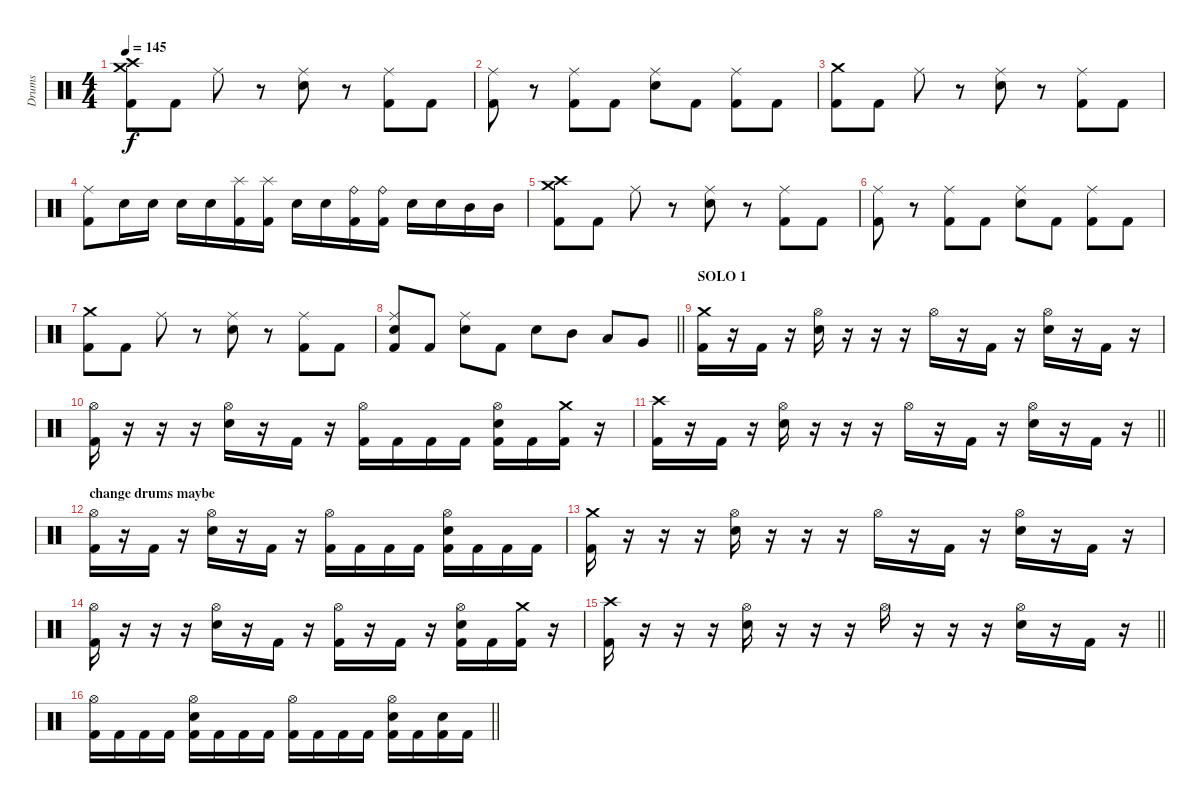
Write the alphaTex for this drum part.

\track ("Drums" "Drums") {instrument percussion}
\staff {score}
\articulation defaults
\ts (4 4)
\tempo 145
\clef neutral
\ks c
("Crash high (hit)" "Crash medium (hit)" "Kick (hit) 2").8{dy f} "Kick (hit) 2".8 "Ride (middle)".8 r.8 ("Ride (middle)" "Snare (hit) 2").8 r.8 ("Ride (middle)" "Kick (hit) 2").8 "Kick (hit) 2".8 |
("Ride (middle)" "Kick (hit) 2").8 r.8 ("Ride (middle)" "Kick (hit) 2").8 "Kick (hit) 2".8 ("Ride (middle)" "Snare (hit) 2").8 "Kick (hit) 2".8 ("Ride (middle)" "Kick (hit) 2").8 "Kick (hit) 2".8 |
("Crash medium (hit)" "Kick (hit) 2").8 "Kick (hit) 2".8 "Ride (middle)".8 r.8 ("Ride (middle)" "Snare (hit) 2").8 r.8 ("Ride (middle)" "Kick (hit) 2").8 "Kick (hit) 2".8 |
("Ride (middle)" "Kick (hit) 2").8 "Snare (hit) 2".16 "Snare (hit) 2".16 "Snare (hit) 2".16 "Snare (hit) 2".16 ("Splash (hit)" "Kick (hit) 2").16 ("Splash (hit)" "Kick (hit) 2").16 "Snare (hit) 2".16 "Snare (hit) 2".16 ("Ride (bell)" "Kick (hit) 2").16 ("Ride (bell)" "Kick (hit) 2").16 "Snare (hit) 2".16 "Snare (hit) 2".16 "Mid Tom (hit)".16 "Mid Tom (hit)".16 |
("Crash high (hit)" "Crash medium (hit)" "Kick (hit) 2").8 "Kick (hit) 2".8 "Ride (middle)".8 r.8 ("Ride (middle)" "Snare (hit) 2").8 r.8 ("Ride (middle)" "Kick (hit) 2").8 "Kick (hit) 2".8 |
("Ride (middle)" "Kick (hit) 2").8 r.8 ("Ride (middle)" "Kick (hit) 2").8 "Kick (hit) 2".8 ("Ride (middle)" "Snare (hit) 2").8 "Kick (hit) 2".8 ("Ride (middle)" "Kick (hit) 2").8 "Kick (hit) 2".8 |
("Crash medium (hit)" "Kick (hit) 2").8 "Kick (hit) 2".8 "Ride (middle)".8 r.8 ("Ride (middle)" "Snare (hit) 2").8 r.8 ("Ride (middle)" "Kick (hit) 2").8 "Kick (hit) 2".8 |
\barLineRight lightlight
("Ride (middle)" "Snare (hit) 2" "Kick (hit) 2").8 "Kick (hit) 2".8 ("Ride (middle)" "Snare (hit) 2").8 "Kick (hit) 2".8 "Snare (hit) 2".8 "Mid Tom (hit)".8 "Low Tom (hit)".8 "Very Low Tom (hit)".8 |
\section ("" "SOLO 1")
("Crash medium (hit)" "Kick (hit) 2").16 r.16 "Kick (hit) 2".16 r.16 ("Hi-Hat (open)" "Snare (hit) 2").16 r.16 r.16 r.16 "Hi-Hat (open)".16 r.16 "Kick (hit) 2".16 r.16 ("Hi-Hat (open)" "Snare (hit) 2").16 r.16 "Kick (hit) 2".16 r.16 |
("Hi-Hat (open)" "Kick (hit) 2").16 r.16 r.16 r.16 ("Hi-Hat (open)" "Snare (hit) 2").16 r.16 "Kick (hit) 2".16 r.16 ("Hi-Hat (open)" "Kick (hit) 2").16 "Kick (hit) 2".16 "Kick (hit) 2".16 "Kick (hit) 2".16 ("Hi-Hat (open)" "Snare (hit) 2" "Kick (hit) 2").16 "Kick (hit) 2".16 ("Crash medium (hit)" "Kick (hit) 2").16 r.16 |
\barLineRight lightlight
("Crash high (hit)" "Kick (hit) 2").16 r.16 "Kick (hit) 2".16 r.16 ("Hi-Hat (open)" "Snare (hit) 2").16 r.16 r.16 r.16 "Hi-Hat (open)".16 r.16 "Kick (hit) 2".16 r.16 ("Hi-Hat (open)" "Snare (hit) 2").16 r.16 "Kick (hit) 2".16 r.16 |
\section ("" "change drums maybe")
("Hi-Hat (open)" "Kick (hit) 2").16 r.16 "Kick (hit) 2".16 r.16 ("Hi-Hat (open)" "Snare (hit) 2").16 r.16 "Kick (hit) 2".16 r.16 ("Hi-Hat (open)" "Kick (hit) 2").16 "Kick (hit) 2".16 "Kick (hit) 2".16 "Kick (hit) 2".16 ("Hi-Hat (open)" "Snare (hit) 2" "Kick (hit) 2").16 "Kick (hit) 2".16 "Kick (hit) 2".16 "Kick (hit) 2".16 |
("Crash medium (hit)" "Kick (hit) 2").16 r.16 r.16 r.16 ("Hi-Hat (open)" "Snare (hit) 2").16 r.16 r.16 r.16 "Hi-Hat (open)".16 r.16 "Kick (hit) 2".16 r.16 ("Hi-Hat (open)" "Snare (hit) 2").16 r.16 "Kick (hit) 2".16 r.16 |
("Hi-Hat (open)" "Kick (hit) 2").16 r.16 r.16 r.16 ("Hi-Hat (open)" "Snare (hit) 2").16 r.16 "Kick (hit) 2".16 r.16 ("Hi-Hat (open)" "Kick (hit) 2").16 r.16 "Kick (hit) 2".16 r.16 ("Hi-Hat (open)" "Snare (hit) 2" "Kick (hit) 2").16 "Kick (hit) 2".16 ("Crash medium (hit)" "Kick (hit) 2").16 r.16 |
\barLineRight lightlight
("Crash high (hit)" "Kick (hit) 2").16 r.16 r.16 r.16 ("Hi-Hat (open)" "Snare (hit) 2").16 r.16 r.16 r.16 "Hi-Hat (open)".16 r.16 r.16 r.16 ("Hi-Hat (open)" "Snare (hit) 2").16 r.16 "Kick (hit) 2".16 r.16 |
\barLineRight lightlight
("Hi-Hat (open)" "Kick (hit) 2").16 "Kick (hit) 2".16 "Kick (hit) 2".16 "Kick (hit) 2".16 ("Hi-Hat (open)" "Snare (hit) 2" "Kick (hit) 2").16 "Kick (hit) 2".16 "Kick (hit) 2".16 "Kick (hit) 2".16 ("Hi-Hat (open)" "Kick (hit) 2").16 "Kick (hit) 2".16 "Kick (hit) 2".16 "Kick (hit) 2".16 ("Hi-Hat (open)" "Snare (hit) 2" "Kick (hit) 2").16 "Kick (hit) 2".16 ("Snare (hit) 2" "Kick (hit) 2").16 "Kick (hit) 2".16
